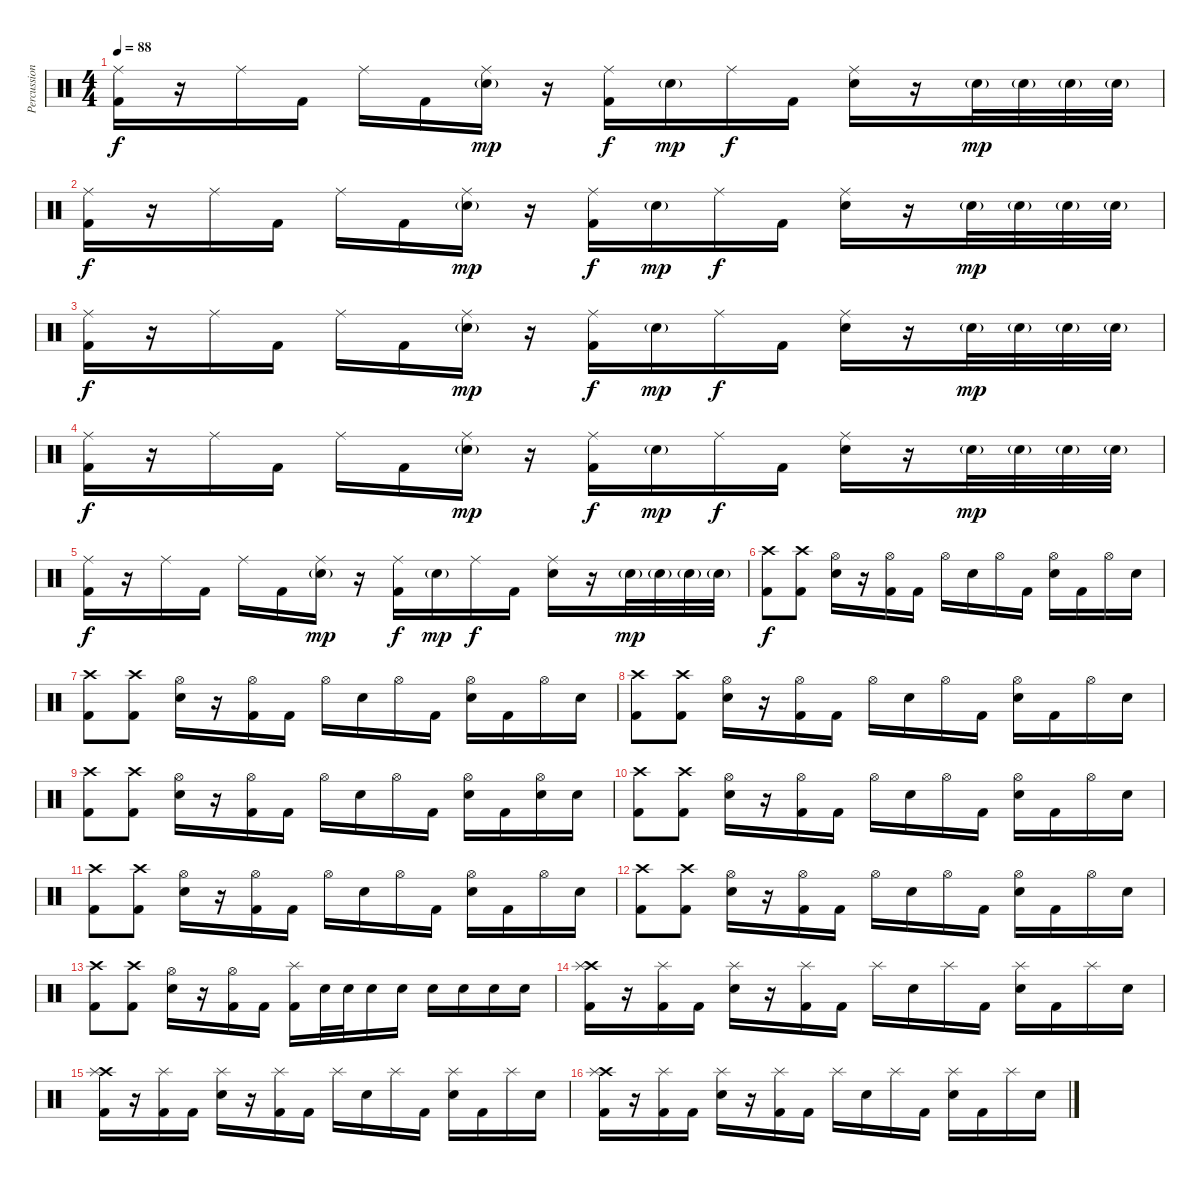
\track ("Percussion" "Percussion") {instrument percussion}
\staff {score}
\articulation defaults
\ts (4 4)
\tempo 88
\clef neutral
\ks c
("Ride (middle)" "Kick (hit) 2").16{dy f} r.16 "Ride (middle)".16 "Kick (hit) 2".16 "Ride (middle)".16 "Kick (hit) 2".16 ("Ride (middle)" "Electric Snare (hit)"{g}).16{dy mp} r.16 ("Ride (middle)" "Kick (hit) 2").16{dy f} "Electric Snare (hit)"{g}.16{dy mp} "Ride (middle)".16{dy f} "Kick (hit) 2".16 ("Ride (middle)" "Electric Snare (hit)").16 r.16 "Electric Snare (hit)"{g}.32{dy mp} "Electric Snare (hit)"{g}.32 "Electric Snare (hit)"{g}.32 "Electric Snare (hit)"{g}.32 |
("Ride (middle)" "Kick (hit) 2").16{dy f} r.16 "Ride (middle)".16 "Kick (hit) 2".16 "Ride (middle)".16 "Kick (hit) 2".16 ("Ride (middle)" "Electric Snare (hit)"{g}).16{dy mp} r.16 ("Ride (middle)" "Kick (hit) 2").16{dy f} "Electric Snare (hit)"{g}.16{dy mp} "Ride (middle)".16{dy f} "Kick (hit) 2".16 ("Ride (middle)" "Electric Snare (hit)").16 r.16 "Electric Snare (hit)"{g}.32{dy mp} "Electric Snare (hit)"{g}.32 "Electric Snare (hit)"{g}.32 "Electric Snare (hit)"{g}.32 |
("Ride (middle)" "Kick (hit) 2").16{dy f} r.16 "Ride (middle)".16 "Kick (hit) 2".16 "Ride (middle)".16 "Kick (hit) 2".16 ("Ride (middle)" "Electric Snare (hit)"{g}).16{dy mp} r.16 ("Ride (middle)" "Kick (hit) 2").16{dy f} "Electric Snare (hit)"{g}.16{dy mp} "Ride (middle)".16{dy f} "Kick (hit) 2".16 ("Ride (middle)" "Electric Snare (hit)").16 r.16 "Electric Snare (hit)"{g}.32{dy mp} "Electric Snare (hit)"{g}.32 "Electric Snare (hit)"{g}.32 "Electric Snare (hit)"{g}.32 |
("Ride (middle)" "Kick (hit) 2").16{dy f} r.16 "Ride (middle)".16 "Kick (hit) 2".16 "Ride (middle)".16 "Kick (hit) 2".16 ("Ride (middle)" "Electric Snare (hit)"{g}).16{dy mp} r.16 ("Ride (middle)" "Kick (hit) 2").16{dy f} "Electric Snare (hit)"{g}.16{dy mp} "Ride (middle)".16{dy f} "Kick (hit) 2".16 ("Ride (middle)" "Electric Snare (hit)").16 r.16 "Electric Snare (hit)"{g}.32{dy mp} "Electric Snare (hit)"{g}.32 "Electric Snare (hit)"{g}.32 "Electric Snare (hit)"{g}.32 |
("Ride (middle)" "Kick (hit) 2").16{dy f} r.16 "Ride (middle)".16 "Kick (hit) 2".16 "Ride (middle)".16 "Kick (hit) 2".16 ("Ride (middle)" "Electric Snare (hit)"{g}).16{dy mp} r.16 ("Ride (middle)" "Kick (hit) 2").16{dy f} "Electric Snare (hit)"{g}.16{dy mp} "Ride (middle)".16{dy f} "Kick (hit) 2".16 ("Ride (middle)" "Electric Snare (hit)").16 r.16 "Electric Snare (hit)"{g}.32{dy mp} "Electric Snare (hit)"{g}.32 "Electric Snare (hit)"{g}.32 "Electric Snare (hit)"{g}.32 |
("Crash high (hit)" "Kick (hit) 2").8{dy f} ("Crash high (hit)" "Kick (hit) 2").8 ("Hi-Hat (open)" "Electric Snare (hit)").16 r.16 ("Hi-Hat (open)" "Kick (hit) 2").16 "Kick (hit) 2".16 "Hi-Hat (open)".16 "Electric Snare (hit)".16 "Hi-Hat (open)".16 "Kick (hit) 2".16 ("Hi-Hat (open)" "Electric Snare (hit)").16 "Kick (hit) 2".16 "Hi-Hat (open)".16 "Electric Snare (hit)".16 |
("Crash high (hit)" "Kick (hit) 2").8 ("Crash high (hit)" "Kick (hit) 2").8 ("Hi-Hat (open)" "Electric Snare (hit)").16 r.16 ("Hi-Hat (open)" "Kick (hit) 2").16 "Kick (hit) 2".16 "Hi-Hat (open)".16 "Electric Snare (hit)".16 "Hi-Hat (open)".16 "Kick (hit) 2".16 ("Hi-Hat (open)" "Electric Snare (hit)").16 "Kick (hit) 2".16 "Hi-Hat (open)".16 "Electric Snare (hit)".16 |
("Crash high (hit)" "Kick (hit) 2").8 ("Crash high (hit)" "Kick (hit) 2").8 ("Hi-Hat (open)" "Electric Snare (hit)").16 r.16 ("Hi-Hat (open)" "Kick (hit) 2").16 "Kick (hit) 2".16 "Hi-Hat (open)".16 "Electric Snare (hit)".16 "Hi-Hat (open)".16 "Kick (hit) 2".16 ("Hi-Hat (open)" "Electric Snare (hit)").16 "Kick (hit) 2".16 "Hi-Hat (open)".16 "Electric Snare (hit)".16 |
("Crash high (hit)" "Kick (hit) 2").8 ("Crash high (hit)" "Kick (hit) 2").8 ("Hi-Hat (open)" "Electric Snare (hit)").16 r.16 ("Hi-Hat (open)" "Kick (hit) 2").16 "Kick (hit) 2".16 "Hi-Hat (open)".16 "Electric Snare (hit)".16 "Hi-Hat (open)".16 "Kick (hit) 2".16 ("Hi-Hat (open)" "Electric Snare (hit)").16 "Kick (hit) 2".16 ("Hi-Hat (open)" "Electric Snare (hit)").16 "Electric Snare (hit)".16 |
("Crash high (hit)" "Kick (hit) 2").8 ("Crash high (hit)" "Kick (hit) 2").8 ("Hi-Hat (open)" "Electric Snare (hit)").16 r.16 ("Hi-Hat (open)" "Kick (hit) 2").16 "Kick (hit) 2".16 "Hi-Hat (open)".16 "Electric Snare (hit)".16 "Hi-Hat (open)".16 "Kick (hit) 2".16 ("Hi-Hat (open)" "Electric Snare (hit)").16 "Kick (hit) 2".16 "Hi-Hat (open)".16 "Electric Snare (hit)".16 |
("Crash high (hit)" "Kick (hit) 2").8 ("Crash high (hit)" "Kick (hit) 2").8 ("Hi-Hat (open)" "Electric Snare (hit)").16 r.16 ("Hi-Hat (open)" "Kick (hit) 2").16 "Kick (hit) 2".16 "Hi-Hat (open)".16 "Electric Snare (hit)".16 "Hi-Hat (open)".16 "Kick (hit) 2".16 ("Hi-Hat (open)" "Electric Snare (hit)").16 "Kick (hit) 2".16 "Hi-Hat (open)".16 "Electric Snare (hit)".16 |
("Crash high (hit)" "Kick (hit) 2").8 ("Crash high (hit)" "Kick (hit) 2").8 ("Hi-Hat (open)" "Electric Snare (hit)").16 r.16 ("Hi-Hat (open)" "Kick (hit) 2").16 "Kick (hit) 2".16 "Hi-Hat (open)".16 "Electric Snare (hit)".16 "Hi-Hat (open)".16 "Kick (hit) 2".16 ("Hi-Hat (open)" "Electric Snare (hit)").16 "Kick (hit) 2".16 "Hi-Hat (open)".16 "Electric Snare (hit)".16 |
("Crash high (hit)" "Kick (hit) 2").8 ("Crash high (hit)" "Kick (hit) 2").8 ("Hi-Hat (open)" "Electric Snare (hit)").16 r.16 ("Hi-Hat (open)" "Kick (hit) 2").16 "Kick (hit) 2".16 ("Splash (hit)" "Kick (hit) 2").16 "Electric Snare (hit)".32 "Electric Snare (hit)".32 "Electric Snare (hit)".16 "Electric Snare (hit)".16 "Electric Snare (hit)".16 "Electric Snare (hit)".16 "Electric Snare (hit)".16 "Electric Snare (hit)".16 |
("Crash high (hit)" "Splash (hit)" "Kick (hit) 2").16 r.16 ("Splash (hit)" "Kick (hit) 2").16 "Kick (hit) 2".16 ("Splash (hit)" "Electric Snare (hit)").16 r.16 ("Splash (hit)" "Kick (hit) 2").16 "Kick (hit) 2".16 "Splash (hit)".16 "Electric Snare (hit)".16 "Splash (hit)".16 "Kick (hit) 2".16 ("Splash (hit)" "Electric Snare (hit)").16 "Kick (hit) 2".16 "Splash (hit)".16 "Electric Snare (hit)".16 |
("Crash high (hit)" "Splash (hit)" "Kick (hit) 2").16 r.16 ("Splash (hit)" "Kick (hit) 2").16 "Kick (hit) 2".16 ("Splash (hit)" "Electric Snare (hit)").16 r.16 ("Splash (hit)" "Kick (hit) 2").16 "Kick (hit) 2".16 "Splash (hit)".16 "Electric Snare (hit)".16 "Splash (hit)".16 "Kick (hit) 2".16 ("Splash (hit)" "Electric Snare (hit)").16 "Kick (hit) 2".16 "Splash (hit)".16 "Electric Snare (hit)".16 |
("Crash high (hit)" "Splash (hit)" "Kick (hit) 2").16 r.16 ("Splash (hit)" "Kick (hit) 2").16 "Kick (hit) 2".16 ("Splash (hit)" "Electric Snare (hit)").16 r.16 ("Splash (hit)" "Kick (hit) 2").16 "Kick (hit) 2".16 "Splash (hit)".16 "Electric Snare (hit)".16 "Splash (hit)".16 "Kick (hit) 2".16 ("Splash (hit)" "Electric Snare (hit)").16 "Kick (hit) 2".16 "Splash (hit)".16 "Electric Snare (hit)".16
